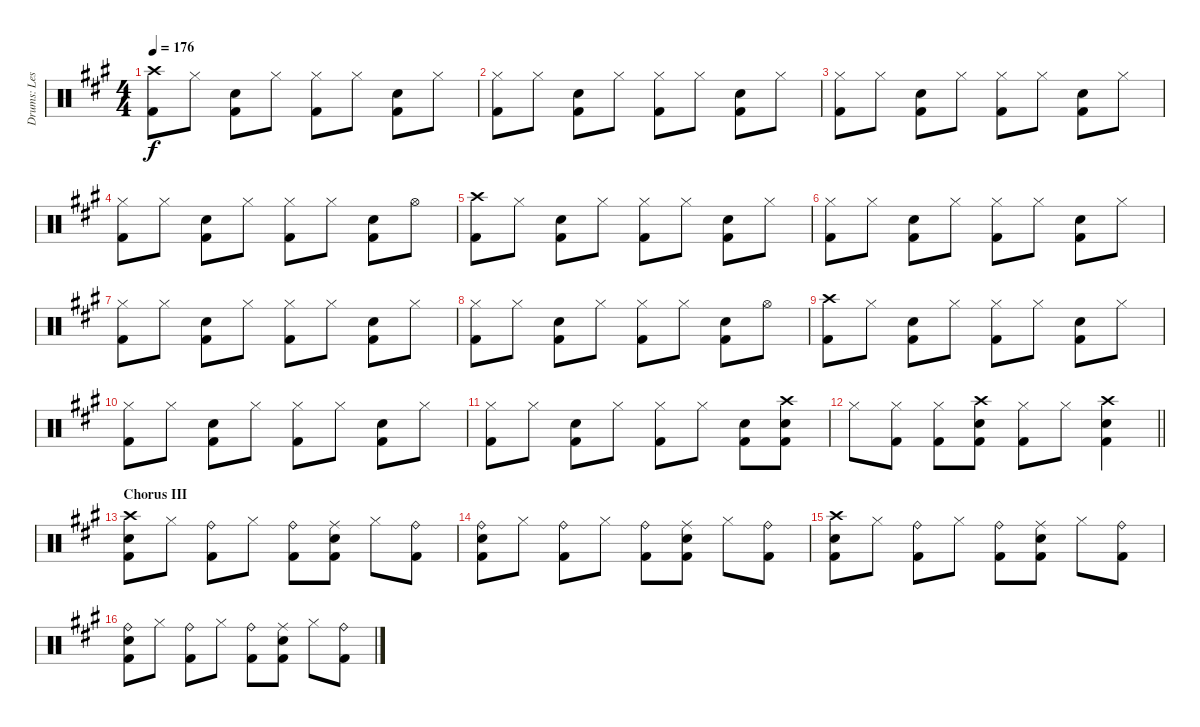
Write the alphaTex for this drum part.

\track ("Drums: Les" "Drums: Les") {instrument percussion}
\staff {score}
\articulation defaults
\ts (4 4)
\tempo 176
\clef neutral
\ks a
("Crash high (hit)" "Kick (hit) 2").8{dy f} "Hi-Hat (closed)".8 ("Snare (hit) 2" "Kick (hit) 2").8 "Hi-Hat (closed)".8 ("Hi-Hat (closed)" "Kick (hit) 2").8 "Hi-Hat (closed)".8 ("Snare (hit) 2" "Kick (hit) 2").8 "Hi-Hat (closed)".8 |
("Hi-Hat (closed)" "Kick (hit) 2").8 "Hi-Hat (closed)".8 ("Snare (hit) 2" "Kick (hit) 2").8 "Hi-Hat (closed)".8 ("Hi-Hat (closed)" "Kick (hit) 2").8 "Hi-Hat (closed)".8 ("Snare (hit) 2" "Kick (hit) 2").8 "Hi-Hat (closed)".8 |
("Hi-Hat (closed)" "Kick (hit) 2").8 "Hi-Hat (closed)".8 ("Snare (hit) 2" "Kick (hit) 2").8 "Hi-Hat (closed)".8 ("Hi-Hat (closed)" "Kick (hit) 2").8 "Hi-Hat (closed)".8 ("Snare (hit) 2" "Kick (hit) 2").8 "Hi-Hat (closed)".8 |
("Hi-Hat (closed)" "Kick (hit) 2").8 "Hi-Hat (closed)".8 ("Snare (hit) 2" "Kick (hit) 2").8 "Hi-Hat (closed)".8 ("Hi-Hat (closed)" "Kick (hit) 2").8 "Hi-Hat (closed)".8 ("Snare (hit) 2" "Kick (hit) 2").8 "Hi-Hat (open)".8 |
("Crash high (hit)" "Kick (hit) 2").8 "Hi-Hat (closed)".8 ("Snare (hit) 2" "Kick (hit) 2").8 "Hi-Hat (closed)".8 ("Hi-Hat (closed)" "Kick (hit) 2").8 "Hi-Hat (closed)".8 ("Snare (hit) 2" "Kick (hit) 2").8 "Hi-Hat (closed)".8 |
("Hi-Hat (closed)" "Kick (hit) 2").8 "Hi-Hat (closed)".8 ("Snare (hit) 2" "Kick (hit) 2").8 "Hi-Hat (closed)".8 ("Hi-Hat (closed)" "Kick (hit) 2").8 "Hi-Hat (closed)".8 ("Snare (hit) 2" "Kick (hit) 2").8 "Hi-Hat (closed)".8 |
("Hi-Hat (closed)" "Kick (hit) 2").8 "Hi-Hat (closed)".8 ("Snare (hit) 2" "Kick (hit) 2").8 "Hi-Hat (closed)".8 ("Hi-Hat (closed)" "Kick (hit) 2").8 "Hi-Hat (closed)".8 ("Snare (hit) 2" "Kick (hit) 2").8 "Hi-Hat (closed)".8 |
("Hi-Hat (closed)" "Kick (hit) 2").8 "Hi-Hat (closed)".8 ("Snare (hit) 2" "Kick (hit) 2").8 "Hi-Hat (closed)".8 ("Hi-Hat (closed)" "Kick (hit) 2").8 "Hi-Hat (closed)".8 ("Snare (hit) 2" "Kick (hit) 2").8 "Hi-Hat (open)".8 |
("Crash high (hit)" "Kick (hit) 2").8 "Hi-Hat (closed)".8 ("Snare (hit) 2" "Kick (hit) 2").8 "Hi-Hat (closed)".8 ("Hi-Hat (closed)" "Kick (hit) 2").8 "Hi-Hat (closed)".8 ("Snare (hit) 2" "Kick (hit) 2").8 "Hi-Hat (closed)".8 |
("Hi-Hat (closed)" "Kick (hit) 2").8 "Hi-Hat (closed)".8 ("Snare (hit) 2" "Kick (hit) 2").8 "Hi-Hat (closed)".8 ("Hi-Hat (closed)" "Kick (hit) 2").8 "Hi-Hat (closed)".8 ("Snare (hit) 2" "Kick (hit) 2").8 "Hi-Hat (closed)".8 |
("Hi-Hat (closed)" "Kick (hit) 2").8 "Hi-Hat (closed)".8 ("Snare (hit) 2" "Kick (hit) 2").8 "Hi-Hat (closed)".8 ("Hi-Hat (closed)" "Kick (hit) 2").8 "Hi-Hat (closed)".8 ("Snare (hit) 2" "Kick (hit) 2").8 ("Crash high (hit)" "Snare (hit) 2" "Kick (hit) 2").8 |
\barLineRight lightlight "Hi-Hat (closed)".8
("Hi-Hat (closed)" "Kick (hit) 2").8 ("Hi-Hat (closed)" "Kick (hit) 2").8 ("Crash high (hit)" "Snare (hit) 2" "Kick (hit) 2").8 ("Hi-Hat (closed)" "Kick (hit) 2").8 "Hi-Hat (closed)".8 ("Crash high (hit)" "Snare (hit) 2" "Kick (hit) 2").4 |
\section ("" "Chorus III")
("Crash high (hit)" "Snare (hit) 2" "Kick (hit) 2").8 "Hi-Hat (closed)".8 ("Ride (bell)" "Kick (hit) 2").8 "Hi-Hat (closed)".8 ("Ride (bell)" "Kick (hit) 2").8 ("Ride (middle)" "Snare (hit) 2" "Kick (hit) 2").8 "Hi-Hat (closed)".8 ("Ride (bell)" "Kick (hit) 2").8 |
("Ride (bell)" "Snare (hit) 2" "Kick (hit) 2").8 "Hi-Hat (closed)".8 ("Ride (bell)" "Kick (hit) 2").8 "Hi-Hat (closed)".8 ("Ride (bell)" "Kick (hit) 2").8 ("Ride (middle)" "Snare (hit) 2" "Kick (hit) 2").8 "Hi-Hat (closed)".8 ("Ride (bell)" "Kick (hit) 2").8 |
("Crash high (hit)" "Snare (hit) 2" "Kick (hit) 2").8 "Hi-Hat (closed)".8 ("Ride (bell)" "Kick (hit) 2").8 "Hi-Hat (closed)".8 ("Ride (bell)" "Kick (hit) 2").8 ("Ride (middle)" "Snare (hit) 2" "Kick (hit) 2").8 "Hi-Hat (closed)".8 ("Ride (bell)" "Kick (hit) 2").8 |
("Ride (bell)" "Snare (hit) 2" "Kick (hit) 2").8 "Hi-Hat (closed)".8 ("Ride (bell)" "Kick (hit) 2").8 "Hi-Hat (closed)".8 ("Ride (bell)" "Kick (hit) 2").8 ("Ride (middle)" "Snare (hit) 2" "Kick (hit) 2").8 "Hi-Hat (closed)".8 ("Ride (bell)" "Kick (hit) 2").8
